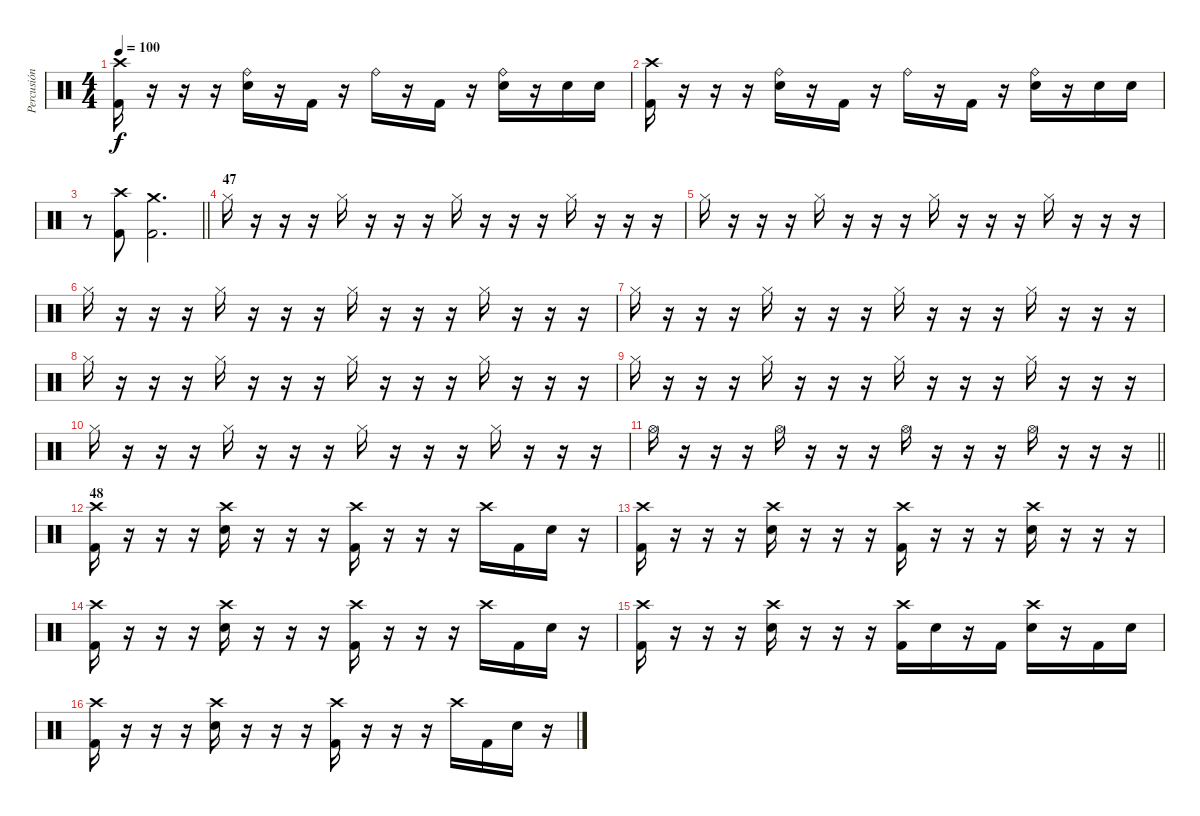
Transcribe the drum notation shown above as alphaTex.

\track ("Percusión" "Percusión") {instrument percussion}
\staff {score}
\articulation defaults
\ts (4 4)
\tempo 100
\clef neutral
\ks c
("Crash high (hit)" "Kick (hit) 2").16{dy f} r.16 r.16 r.16 ("Ride (bell)" "Electric Snare (hit)").16 r.16 "Kick (hit) 2".16 r.16 "Ride (bell)".16 r.16 "Kick (hit) 2".16 r.16 ("Ride (bell)" "Electric Snare (hit)").16 r.16 "Electric Snare (hit)".16 "Electric Snare (hit)".16 |
("Crash high (hit)" "Kick (hit) 2").16 r.16 r.16 r.16 ("Ride (bell)" "Electric Snare (hit)").16 r.16 "Kick (hit) 2".16 r.16 "Ride (bell)".16 r.16 "Kick (hit) 2".16 r.16 ("Ride (bell)" "Electric Snare (hit)").16 r.16 "Electric Snare (hit)".16 "Electric Snare (hit)".16 |
\barLineRight lightlight
r.8 ("Crash high (hit)" "Kick (hit) 2").8 ("Crash medium (hit)" "Kick (hit) 2").2{d} |
\section ("" "47")
"Hi-Hat (closed)".16 r.16 r.16 r.16 "Hi-Hat (closed)".16 r.16 r.16 r.16 "Hi-Hat (closed)".16 r.16 r.16 r.16 "Hi-Hat (closed)".16 r.16 r.16 r.16 |
"Hi-Hat (closed)".16 r.16 r.16 r.16 "Hi-Hat (closed)".16 r.16 r.16 r.16 "Hi-Hat (closed)".16 r.16 r.16 r.16 "Hi-Hat (closed)".16 r.16 r.16 r.16 |
"Hi-Hat (closed)".16 r.16 r.16 r.16 "Hi-Hat (closed)".16 r.16 r.16 r.16 "Hi-Hat (closed)".16 r.16 r.16 r.16 "Hi-Hat (closed)".16 r.16 r.16 r.16 |
"Hi-Hat (closed)".16 r.16 r.16 r.16 "Hi-Hat (closed)".16 r.16 r.16 r.16 "Hi-Hat (closed)".16 r.16 r.16 r.16 "Hi-Hat (closed)".16 r.16 r.16 r.16 |
"Hi-Hat (closed)".16 r.16 r.16 r.16 "Hi-Hat (closed)".16 r.16 r.16 r.16 "Hi-Hat (closed)".16 r.16 r.16 r.16 "Hi-Hat (closed)".16 r.16 r.16 r.16 |
"Hi-Hat (closed)".16 r.16 r.16 r.16 "Hi-Hat (closed)".16 r.16 r.16 r.16 "Hi-Hat (closed)".16 r.16 r.16 r.16 "Hi-Hat (closed)".16 r.16 r.16 r.16 |
"Hi-Hat (closed)".16 r.16 r.16 r.16 "Hi-Hat (closed)".16 r.16 r.16 r.16 "Hi-Hat (closed)".16 r.16 r.16 r.16 "Hi-Hat (closed)".16 r.16 r.16 r.16 |
\barLineRight lightlight "Hi-Hat (open)".16
r.16 r.16 r.16 "Hi-Hat (open)".16 r.16 r.16 r.16 "Hi-Hat (open)".16 r.16 r.16 r.16 "Hi-Hat (open)".16 r.16 r.16 r.16 |
\section ("" "48")
("Crash high (hit)" "Kick (hit) 2").16 r.16 r.16 r.16 ("Crash high (hit)" "Electric Snare (hit)").16 r.16 r.16 r.16 ("Crash high (hit)" "Kick (hit) 2").16 r.16 r.16 r.16 "Crash high (hit)".16 "Kick (hit) 2".16 "Electric Snare (hit)".16 r.16 |
("Crash high (hit)" "Kick (hit) 2").16 r.16 r.16 r.16 ("Crash high (hit)" "Electric Snare (hit)").16 r.16 r.16 r.16 ("Crash high (hit)" "Kick (hit) 2").16 r.16 r.16 r.16 ("Crash high (hit)" "Electric Snare (hit)").16 r.16 r.16 r.16 |
("Crash high (hit)" "Kick (hit) 2").16 r.16 r.16 r.16 ("Crash high (hit)" "Electric Snare (hit)").16 r.16 r.16 r.16 ("Crash high (hit)" "Kick (hit) 2").16 r.16 r.16 r.16 "Crash high (hit)".16 "Kick (hit) 2".16 "Electric Snare (hit)".16 r.16 |
("Crash high (hit)" "Kick (hit) 2").16 r.16 r.16 r.16 ("Crash high (hit)" "Electric Snare (hit)").16 r.16 r.16 r.16 ("Crash high (hit)" "Kick (hit) 2").16 "Electric Snare (hit)".16 r.16 "Kick (hit) 2".16 ("Crash high (hit)" "Electric Snare (hit)").16 r.16 "Kick (hit) 2".16 "Electric Snare (hit)".16 |
("Crash high (hit)" "Kick (hit) 2").16 r.16 r.16 r.16 ("Crash high (hit)" "Electric Snare (hit)").16 r.16 r.16 r.16 ("Crash high (hit)" "Kick (hit) 2").16 r.16 r.16 r.16 "Crash high (hit)".16 "Kick (hit) 2".16 "Electric Snare (hit)".16 r.16
